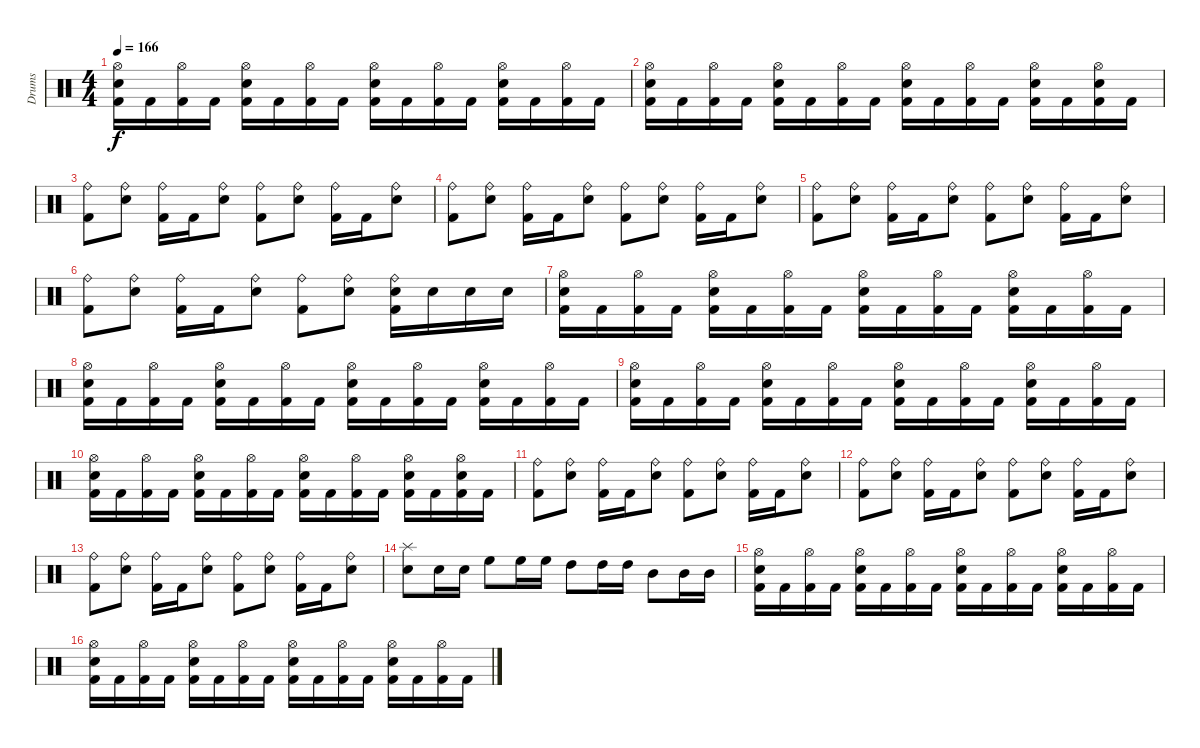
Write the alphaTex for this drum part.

\track ("Drums" "Drums") {instrument percussion}
\staff {score}
\articulation defaults
\ts (4 4)
\tempo 166
\clef neutral
\ks c
("Kick (hit) 2" "Snare (hit) 2" "Hi-Hat (open)").16{dy f} "Kick (hit) 2".16 ("Kick (hit) 2" "Hi-Hat (open)").16 "Kick (hit) 2".16 ("Kick (hit) 2" "Snare (hit) 2" "Hi-Hat (open)").16 "Kick (hit) 2".16 ("Kick (hit) 2" "Hi-Hat (open)").16 "Kick (hit) 2".16 ("Kick (hit) 2" "Snare (hit) 2" "Hi-Hat (open)").16 "Kick (hit) 2".16 ("Kick (hit) 2" "Hi-Hat (open)").16 "Kick (hit) 2".16 ("Kick (hit) 2" "Snare (hit) 2" "Hi-Hat (open)").16 "Kick (hit) 2".16 ("Kick (hit) 2" "Hi-Hat (open)").16 "Kick (hit) 2".16 |
("Kick (hit) 2" "Snare (hit) 2" "Hi-Hat (open)").16 "Kick (hit) 2".16 ("Kick (hit) 2" "Hi-Hat (open)").16 "Kick (hit) 2".16 ("Kick (hit) 2" "Snare (hit) 2" "Hi-Hat (open)").16 "Kick (hit) 2".16 ("Kick (hit) 2" "Hi-Hat (open)").16 "Kick (hit) 2".16 ("Kick (hit) 2" "Snare (hit) 2" "Hi-Hat (open)").16 "Kick (hit) 2".16 ("Kick (hit) 2" "Hi-Hat (open)").16 "Kick (hit) 2".16 ("Kick (hit) 2" "Snare (hit) 2" "Hi-Hat (open)").16 "Kick (hit) 2".16 ("Kick (hit) 2" "Snare (hit) 2" "Hi-Hat (open)").16 "Kick (hit) 2".16 |
("Kick (hit) 2" "Ride (bell)").8 ("Snare (hit) 2" "Ride (bell)").8 ("Kick (hit) 2" "Ride (bell)").16 "Kick (hit) 2".16 ("Snare (hit) 2" "Ride (bell)").8 ("Kick (hit) 2" "Ride (bell)").8 ("Snare (hit) 2" "Ride (bell)").8 ("Kick (hit) 2" "Ride (bell)").16 "Kick (hit) 2".16 ("Snare (hit) 2" "Ride (bell)").8 |
("Kick (hit) 2" "Ride (bell)").8 ("Snare (hit) 2" "Ride (bell)").8 ("Kick (hit) 2" "Ride (bell)").16 "Kick (hit) 2".16 ("Snare (hit) 2" "Ride (bell)").8 ("Kick (hit) 2" "Ride (bell)").8 ("Snare (hit) 2" "Ride (bell)").8 ("Kick (hit) 2" "Ride (bell)").16 "Kick (hit) 2".16 ("Snare (hit) 2" "Ride (bell)").8 |
("Kick (hit) 2" "Ride (bell)").8 ("Snare (hit) 2" "Ride (bell)").8 ("Kick (hit) 2" "Ride (bell)").16 "Kick (hit) 2".16 ("Snare (hit) 2" "Ride (bell)").8 ("Kick (hit) 2" "Ride (bell)").8 ("Snare (hit) 2" "Ride (bell)").8 ("Kick (hit) 2" "Ride (bell)").16 "Kick (hit) 2".16 ("Snare (hit) 2" "Ride (bell)").8 |
("Kick (hit) 2" "Ride (bell)").8 ("Snare (hit) 2" "Ride (bell)").8 ("Kick (hit) 2" "Ride (bell)").16 "Kick (hit) 2".16 ("Snare (hit) 2" "Ride (bell)").8 ("Kick (hit) 2" "Ride (bell)").8 ("Snare (hit) 2" "Ride (bell)").8 ("Kick (hit) 2" "Snare (hit) 2" "Ride (bell)").16 "Snare (hit) 2".16 "Snare (hit) 2".16 "Snare (hit) 2".16 |
("Kick (hit) 2" "Snare (hit) 2" "Hi-Hat (open)").16 "Kick (hit) 2".16 ("Kick (hit) 2" "Hi-Hat (open)").16 "Kick (hit) 2".16 ("Kick (hit) 2" "Snare (hit) 2" "Hi-Hat (open)").16 "Kick (hit) 2".16 ("Kick (hit) 2" "Hi-Hat (open)").16 "Kick (hit) 2".16 ("Kick (hit) 2" "Snare (hit) 2" "Hi-Hat (open)").16 "Kick (hit) 2".16 ("Kick (hit) 2" "Hi-Hat (open)").16 "Kick (hit) 2".16 ("Kick (hit) 2" "Snare (hit) 2" "Hi-Hat (open)").16 "Kick (hit) 2".16 ("Kick (hit) 2" "Hi-Hat (open)").16 "Kick (hit) 2".16 |
("Kick (hit) 2" "Snare (hit) 2" "Hi-Hat (open)").16 "Kick (hit) 2".16 ("Kick (hit) 2" "Hi-Hat (open)").16 "Kick (hit) 2".16 ("Kick (hit) 2" "Snare (hit) 2" "Hi-Hat (open)").16 "Kick (hit) 2".16 ("Kick (hit) 2" "Hi-Hat (open)").16 "Kick (hit) 2".16 ("Kick (hit) 2" "Snare (hit) 2" "Hi-Hat (open)").16 "Kick (hit) 2".16 ("Kick (hit) 2" "Hi-Hat (open)").16 "Kick (hit) 2".16 ("Kick (hit) 2" "Snare (hit) 2" "Hi-Hat (open)").16 "Kick (hit) 2".16 ("Kick (hit) 2" "Hi-Hat (open)").16 "Kick (hit) 2".16 |
("Kick (hit) 2" "Snare (hit) 2" "Hi-Hat (open)").16 "Kick (hit) 2".16 ("Kick (hit) 2" "Hi-Hat (open)").16 "Kick (hit) 2".16 ("Kick (hit) 2" "Snare (hit) 2" "Hi-Hat (open)").16 "Kick (hit) 2".16 ("Kick (hit) 2" "Hi-Hat (open)").16 "Kick (hit) 2".16 ("Kick (hit) 2" "Snare (hit) 2" "Hi-Hat (open)").16 "Kick (hit) 2".16 ("Kick (hit) 2" "Hi-Hat (open)").16 "Kick (hit) 2".16 ("Kick (hit) 2" "Snare (hit) 2" "Hi-Hat (open)").16 "Kick (hit) 2".16 ("Kick (hit) 2" "Hi-Hat (open)").16 "Kick (hit) 2".16 |
("Kick (hit) 2" "Snare (hit) 2" "Hi-Hat (open)").16 "Kick (hit) 2".16 ("Kick (hit) 2" "Hi-Hat (open)").16 "Kick (hit) 2".16 ("Kick (hit) 2" "Snare (hit) 2" "Hi-Hat (open)").16 "Kick (hit) 2".16 ("Kick (hit) 2" "Hi-Hat (open)").16 "Kick (hit) 2".16 ("Kick (hit) 2" "Snare (hit) 2" "Hi-Hat (open)").16 "Kick (hit) 2".16 ("Kick (hit) 2" "Hi-Hat (open)").16 "Kick (hit) 2".16 ("Kick (hit) 2" "Snare (hit) 2" "Hi-Hat (open)").16 "Kick (hit) 2".16 ("Kick (hit) 2" "Snare (hit) 2" "Hi-Hat (open)").16 "Kick (hit) 2".16 |
("Kick (hit) 2" "Ride (bell)").8 ("Snare (hit) 2" "Ride (bell)").8 ("Kick (hit) 2" "Ride (bell)").16 "Kick (hit) 2".16 ("Snare (hit) 2" "Ride (bell)").8 ("Kick (hit) 2" "Ride (bell)").8 ("Snare (hit) 2" "Ride (bell)").8 ("Kick (hit) 2" "Ride (bell)").16 "Kick (hit) 2".16 ("Snare (hit) 2" "Ride (bell)").8 |
("Kick (hit) 2" "Ride (bell)").8 ("Snare (hit) 2" "Ride (bell)").8 ("Kick (hit) 2" "Ride (bell)").16 "Kick (hit) 2".16 ("Snare (hit) 2" "Ride (bell)").8 ("Kick (hit) 2" "Ride (bell)").8 ("Snare (hit) 2" "Ride (bell)").8 ("Kick (hit) 2" "Ride (bell)").16 "Kick (hit) 2".16 ("Snare (hit) 2" "Ride (bell)").8 |
("Kick (hit) 2" "Ride (bell)").8 ("Snare (hit) 2" "Ride (bell)").8 ("Kick (hit) 2" "Ride (bell)").16 "Kick (hit) 2".16 ("Snare (hit) 2" "Ride (bell)").8 ("Kick (hit) 2" "Ride (bell)").8 ("Snare (hit) 2" "Ride (bell)").8 ("Kick (hit) 2" "Ride (bell)").16 "Kick (hit) 2".16 ("Snare (hit) 2" "Ride (bell)").8 |
("Snare (hit) 2" "Splash (hit)").8 "Snare (hit) 2".16 "Snare (hit) 2".16 "High Floor Tom (hit)".8 "High Floor Tom (hit)".16 "High Floor Tom (hit)".16 "High Tom (hit)".8 "High Tom (hit)".16 "High Tom (hit)".16 "Mid Tom (hit)".8 "Mid Tom (hit)".16 "Mid Tom (hit)".16 |
("Kick (hit) 2" "Snare (hit) 2" "Hi-Hat (open)").16 "Kick (hit) 2".16 ("Kick (hit) 2" "Hi-Hat (open)").16 "Kick (hit) 2".16 ("Kick (hit) 2" "Snare (hit) 2" "Hi-Hat (open)").16 "Kick (hit) 2".16 ("Kick (hit) 2" "Hi-Hat (open)").16 "Kick (hit) 2".16 ("Kick (hit) 2" "Snare (hit) 2" "Hi-Hat (open)").16 "Kick (hit) 2".16 ("Kick (hit) 2" "Hi-Hat (open)").16 "Kick (hit) 2".16 ("Kick (hit) 2" "Snare (hit) 2" "Hi-Hat (open)").16 "Kick (hit) 2".16 ("Kick (hit) 2" "Hi-Hat (open)").16 "Kick (hit) 2".16 |
("Kick (hit) 2" "Snare (hit) 2" "Hi-Hat (open)").16 "Kick (hit) 2".16 ("Kick (hit) 2" "Hi-Hat (open)").16 "Kick (hit) 2".16 ("Kick (hit) 2" "Snare (hit) 2" "Hi-Hat (open)").16 "Kick (hit) 2".16 ("Kick (hit) 2" "Hi-Hat (open)").16 "Kick (hit) 2".16 ("Kick (hit) 2" "Snare (hit) 2" "Hi-Hat (open)").16 "Kick (hit) 2".16 ("Kick (hit) 2" "Hi-Hat (open)").16 "Kick (hit) 2".16 ("Kick (hit) 2" "Snare (hit) 2" "Hi-Hat (open)").16 "Kick (hit) 2".16 ("Kick (hit) 2" "Hi-Hat (open)").16 "Kick (hit) 2".16
